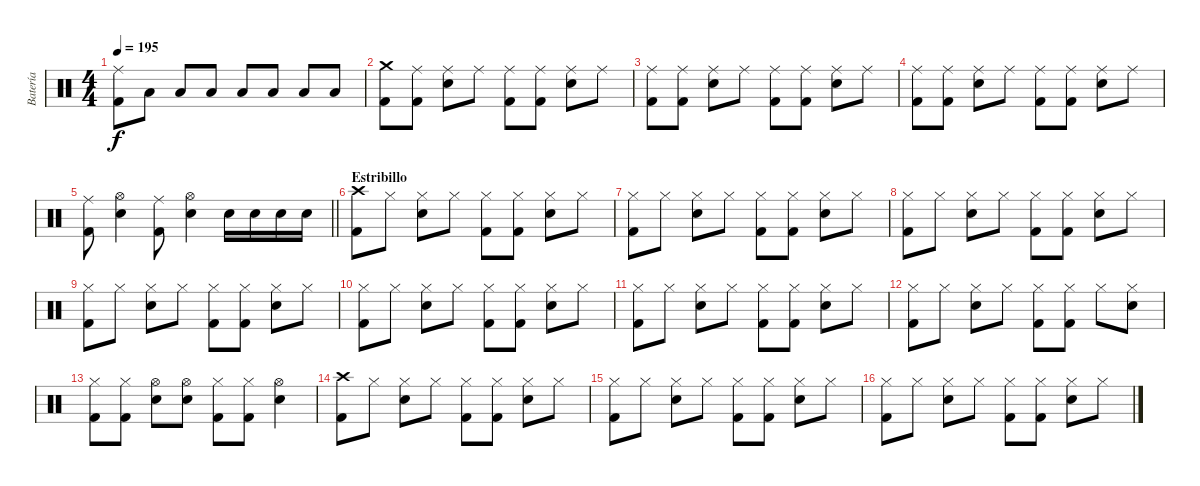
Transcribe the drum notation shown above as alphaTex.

\track ("Batería" "Batería") {instrument percussion}
\staff {score}
\articulation defaults
\ts (4 4)
\tempo 195
\clef neutral
\ks c
("Ride (middle)" "Kick (hit) 2").8{dy f} "Low Tom (hit)".8 "Low Floor Tom (hit)".8 "Low Floor Tom (hit)".8 "Low Tom (hit)".8 "Low Floor Tom (hit)".8 "Low Floor Tom (hit)".8 "Low Tom (hit)".8 |
("Crash medium (hit)" "Kick (hit) 2").8 ("Ride (middle)" "Kick (hit) 2").8 ("Ride (middle)" "Snare (hit) 2").8 "Ride (middle)".8 ("Ride (middle)" "Kick (hit) 2").8 ("Ride (middle)" "Kick (hit) 2").8 ("Ride (middle)" "Snare (hit) 2").8 "Ride (middle)".8 |
("Ride (middle)" "Kick (hit) 2").8 ("Ride (middle)" "Kick (hit) 2").8 ("Ride (middle)" "Snare (hit) 2").8 "Ride (middle)".8 ("Ride (middle)" "Kick (hit) 2").8 ("Ride (middle)" "Kick (hit) 2").8 ("Ride (middle)" "Snare (hit) 2").8 "Ride (middle)".8 |
("Ride (middle)" "Kick (hit) 2").8 ("Ride (middle)" "Kick (hit) 2").8 ("Ride (middle)" "Snare (hit) 2").8 "Ride (middle)".8 ("Ride (middle)" "Kick (hit) 2").8 ("Ride (middle)" "Kick (hit) 2").8 ("Ride (middle)" "Snare (hit) 2").8 "Ride (middle)".8 |
\barLineRight lightlight
("Ride (middle)" "Kick (hit) 2").8 ("Hi-Hat (open)" "Snare (hit) 2").4 ("Ride (middle)" "Kick (hit) 2").8 ("Hi-Hat (open)" "Snare (hit) 2").4 "Snare (hit) 2".16 "Snare (hit) 2".16 "Snare (hit) 2".16 "Snare (hit) 2".16 |
\section ("" "Estribillo")
("Crash high (hit)" "Kick (hit) 2").8 "Hi-Hat (closed)".8 ("Hi-Hat (closed)" "Snare (hit) 2").8 "Hi-Hat (closed)".8 ("Hi-Hat (closed)" "Kick (hit) 2").8 ("Hi-Hat (closed)" "Kick (hit) 2").8 ("Hi-Hat (closed)" "Snare (hit) 2").8 "Hi-Hat (closed)".8 |
("Hi-Hat (closed)" "Kick (hit) 2").8 "Hi-Hat (closed)".8 ("Hi-Hat (closed)" "Snare (hit) 2").8 "Hi-Hat (closed)".8 ("Hi-Hat (closed)" "Kick (hit) 2").8 ("Hi-Hat (closed)" "Kick (hit) 2").8 ("Hi-Hat (closed)" "Snare (hit) 2").8 "Hi-Hat (closed)".8 |
("Hi-Hat (closed)" "Kick (hit) 2").8 "Hi-Hat (closed)".8 ("Hi-Hat (closed)" "Snare (hit) 2").8 "Hi-Hat (closed)".8 ("Hi-Hat (closed)" "Kick (hit) 2").8 ("Hi-Hat (closed)" "Kick (hit) 2").8 ("Hi-Hat (closed)" "Snare (hit) 2").8 "Hi-Hat (closed)".8 |
("Hi-Hat (closed)" "Kick (hit) 2").8 "Hi-Hat (closed)".8 ("Hi-Hat (closed)" "Snare (hit) 2").8 "Hi-Hat (closed)".8 ("Hi-Hat (closed)" "Kick (hit) 2").8 ("Hi-Hat (closed)" "Kick (hit) 2").8 ("Hi-Hat (closed)" "Snare (hit) 2").8 "Hi-Hat (closed)".8 |
("Hi-Hat (closed)" "Kick (hit) 2").8 "Hi-Hat (closed)".8 ("Hi-Hat (closed)" "Snare (hit) 2").8 "Hi-Hat (closed)".8 ("Hi-Hat (closed)" "Kick (hit) 2").8 ("Hi-Hat (closed)" "Kick (hit) 2").8 ("Hi-Hat (closed)" "Snare (hit) 2").8 "Hi-Hat (closed)".8 |
("Hi-Hat (closed)" "Kick (hit) 2").8 "Hi-Hat (closed)".8 ("Hi-Hat (closed)" "Snare (hit) 2").8 "Hi-Hat (closed)".8 ("Hi-Hat (closed)" "Kick (hit) 2").8 ("Hi-Hat (closed)" "Kick (hit) 2").8 ("Hi-Hat (closed)" "Snare (hit) 2").8 "Hi-Hat (closed)".8 |
("Hi-Hat (closed)" "Kick (hit) 2").8 "Hi-Hat (closed)".8 ("Hi-Hat (closed)" "Snare (hit) 2").8 "Hi-Hat (closed)".8 ("Hi-Hat (closed)" "Kick (hit) 2").8 ("Hi-Hat (closed)" "Kick (hit) 2").8 "Hi-Hat (closed)".8 ("Hi-Hat (closed)" "Snare (hit) 2").8 |
("Hi-Hat (closed)" "Kick (hit) 2").8 ("Hi-Hat (closed)" "Kick (hit) 2").8 ("Hi-Hat (open)" "Snare (hit) 2").8 ("Hi-Hat (open)" "Snare (hit) 2").8 ("Hi-Hat (closed)" "Kick (hit) 2").8 ("Hi-Hat (closed)" "Kick (hit) 2").8 ("Hi-Hat (open)" "Snare (hit) 2").4 |
("Crash high (hit)" "Kick (hit) 2").8 "Hi-Hat (closed)".8 ("Hi-Hat (closed)" "Snare (hit) 2").8 "Hi-Hat (closed)".8 ("Hi-Hat (closed)" "Kick (hit) 2").8 ("Hi-Hat (closed)" "Kick (hit) 2").8 ("Hi-Hat (closed)" "Snare (hit) 2").8 "Hi-Hat (closed)".8 |
("Hi-Hat (closed)" "Kick (hit) 2").8 "Hi-Hat (closed)".8 ("Hi-Hat (closed)" "Snare (hit) 2").8 "Hi-Hat (closed)".8 ("Hi-Hat (closed)" "Kick (hit) 2").8 ("Hi-Hat (closed)" "Kick (hit) 2").8 ("Hi-Hat (closed)" "Snare (hit) 2").8 "Hi-Hat (closed)".8 |
("Hi-Hat (closed)" "Kick (hit) 2").8 "Hi-Hat (closed)".8 ("Hi-Hat (closed)" "Snare (hit) 2").8 "Hi-Hat (closed)".8 ("Hi-Hat (closed)" "Kick (hit) 2").8 ("Hi-Hat (closed)" "Kick (hit) 2").8 ("Hi-Hat (closed)" "Snare (hit) 2").8 "Hi-Hat (closed)".8
